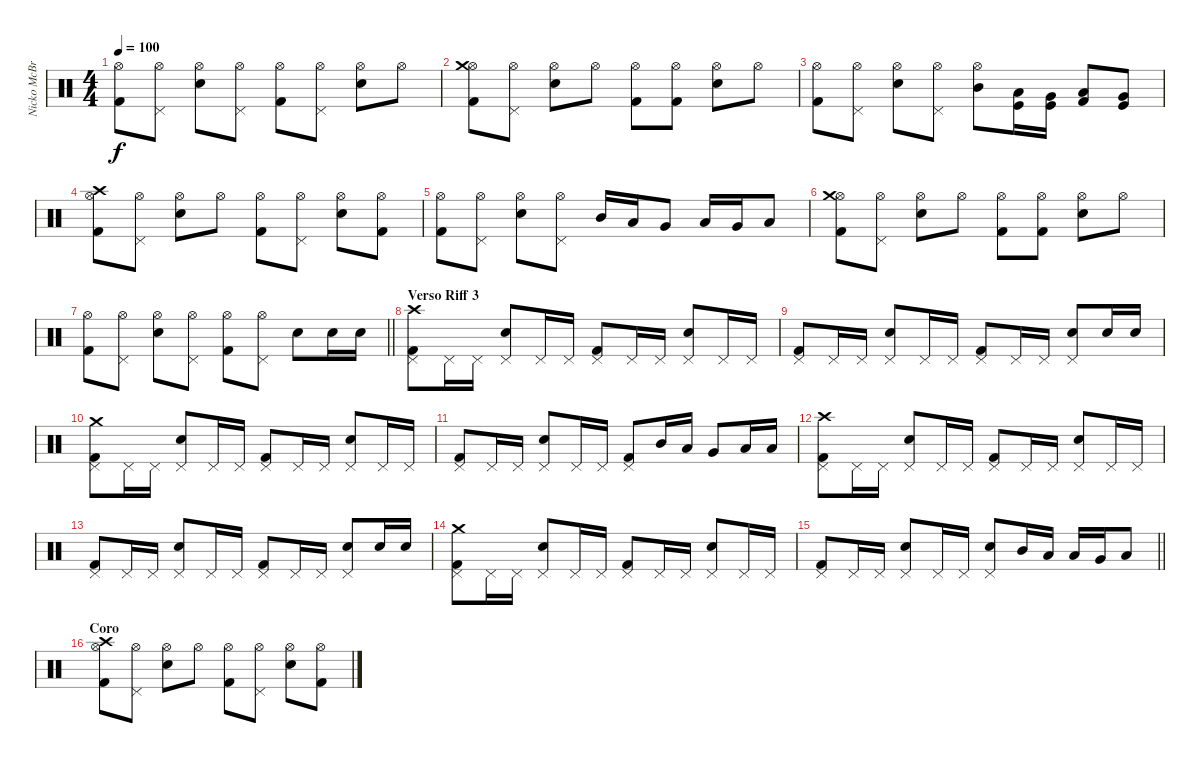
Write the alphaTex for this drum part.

\track ("Nicko McBrain" "Nicko McBr") {instrument percussion}
\staff {score}
\articulation defaults
\ts (4 4)
\tempo 100
\clef neutral
\ks c
("Kick (hit) 2" "Hi-Hat (open)").8{dy f} ("Pedal Hi-Hat (hit)" "Hi-Hat (open)").8 ("Snare (hit) 2" "Hi-Hat (open)").8 ("Pedal Hi-Hat (hit)" "Hi-Hat (open)").8 ("Kick (hit) 2" "Hi-Hat (open)").8 ("Pedal Hi-Hat (hit)" "Hi-Hat (open)").8 ("Snare (hit) 2" "Hi-Hat (open)").8 "Hi-Hat (open)".8 |
("Kick (hit) 2" "Hi-Hat (open)" "Crash medium (hit)").8 ("Pedal Hi-Hat (hit)" "Hi-Hat (open)").8 ("Snare (hit) 2" "Hi-Hat (open)").8 "Hi-Hat (open)".8 ("Kick (hit) 2" "Hi-Hat (open)").8 ("Kick (hit) 2" "Hi-Hat (open)").8 ("Snare (hit) 2" "Hi-Hat (open)").8 "Hi-Hat (open)".8 |
("Kick (hit) 2" "Hi-Hat (open)").8 ("Pedal Hi-Hat (hit)" "Hi-Hat (open)").8 ("Snare (hit) 2" "Hi-Hat (open)").8 ("Pedal Hi-Hat (hit)" "Hi-Hat (open)").8 ("Mid Tom (hit)" "Hi-Hat (open)").8 ("Low Tom (hit)" "Kick (hit)").16 ("Very Low Tom (hit)" "Kick (hit)").16 ("Low Floor Tom (hit)" "Kick (hit) 2").8 ("Very Low Tom (hit)" "Kick (hit)").8 |
("Kick (hit) 2" "Hi-Hat (open)" "Crash high (hit)").8 ("Pedal Hi-Hat (hit)" "Hi-Hat (open)").8 ("Snare (hit) 2" "Hi-Hat (open)").8 "Hi-Hat (open)".8 ("Kick (hit) 2" "Hi-Hat (open)").8 ("Pedal Hi-Hat (hit)" "Hi-Hat (open)").8 ("Snare (hit) 2" "Hi-Hat (open)").8 ("Kick (hit) 2" "Hi-Hat (open)").8 |
("Kick (hit) 2" "Hi-Hat (open)").8 ("Pedal Hi-Hat (hit)" "Hi-Hat (open)").8 ("Snare (hit) 2" "Hi-Hat (open)").8 ("Pedal Hi-Hat (hit)" "Hi-Hat (open)").8 "Mid Tom (hit)".16 "Low Tom (hit)".16 "Very Low Tom (hit)".8 "Low Tom (hit)".16 "Very Low Tom (hit)".16 "Low Floor Tom (hit)".8 |
("Kick (hit) 2" "Hi-Hat (open)" "Crash medium (hit)").8 ("Pedal Hi-Hat (hit)" "Hi-Hat (open)").8 ("Snare (hit) 2" "Hi-Hat (open)").8 "Hi-Hat (open)".8 ("Kick (hit) 2" "Hi-Hat (open)").8 ("Kick (hit) 2" "Hi-Hat (open)").8 ("Snare (hit) 2" "Hi-Hat (open)").8 "Hi-Hat (open)".8 |
\barLineRight lightlight
("Kick (hit) 2" "Hi-Hat (open)").8 ("Pedal Hi-Hat (hit)" "Hi-Hat (open)").8 ("Snare (hit) 2" "Hi-Hat (open)").8 ("Pedal Hi-Hat (hit)" "Hi-Hat (open)").8 ("Kick (hit) 2" "Hi-Hat (open)").8 ("Pedal Hi-Hat (hit)" "Hi-Hat (open)").8 "Snare (hit) 2".8 "Snare (hit) 2".16 "Snare (hit) 2".16 |
\section ("" "Verso Riff 3")
("Kick (hit) 2" "Pedal Hi-Hat (hit)" "Crash high (hit)").8 "Pedal Hi-Hat (hit)".16 "Pedal Hi-Hat (hit)".16 ("Snare (hit) 2" "Pedal Hi-Hat (hit)").8 "Pedal Hi-Hat (hit)".16 "Pedal Hi-Hat (hit)".16 ("Kick (hit) 2" "Pedal Hi-Hat (hit)").8 "Pedal Hi-Hat (hit)".16 "Pedal Hi-Hat (hit)".16 ("Snare (hit) 2" "Pedal Hi-Hat (hit)").8 "Pedal Hi-Hat (hit)".16 "Pedal Hi-Hat (hit)".16 |
("Kick (hit) 2" "Pedal Hi-Hat (hit)").8 "Pedal Hi-Hat (hit)".16 "Pedal Hi-Hat (hit)".16 ("Snare (hit) 2" "Pedal Hi-Hat (hit)").8 "Pedal Hi-Hat (hit)".16 "Pedal Hi-Hat (hit)".16 ("Kick (hit) 2" "Pedal Hi-Hat (hit)").8 "Pedal Hi-Hat (hit)".16 "Pedal Hi-Hat (hit)".16 ("Snare (hit) 2" "Pedal Hi-Hat (hit)").8 "Snare (hit) 2".16 "Snare (hit) 2".16 |
("Kick (hit) 2" "Pedal Hi-Hat (hit)" "Crash medium (hit)").8 "Pedal Hi-Hat (hit)".16 "Pedal Hi-Hat (hit)".16 ("Snare (hit) 2" "Pedal Hi-Hat (hit)").8 "Pedal Hi-Hat (hit)".16 "Pedal Hi-Hat (hit)".16 ("Kick (hit) 2" "Pedal Hi-Hat (hit)").8 "Pedal Hi-Hat (hit)".16 "Pedal Hi-Hat (hit)".16 ("Snare (hit) 2" "Pedal Hi-Hat (hit)").8 "Pedal Hi-Hat (hit)".16 "Pedal Hi-Hat (hit)".16 |
("Kick (hit) 2" "Pedal Hi-Hat (hit)").8 "Pedal Hi-Hat (hit)".16 "Pedal Hi-Hat (hit)".16 ("Snare (hit) 2" "Pedal Hi-Hat (hit)").8 "Pedal Hi-Hat (hit)".16 "Pedal Hi-Hat (hit)".16 ("Kick (hit) 2" "Pedal Hi-Hat (hit)").8 "Mid Tom (hit)".16 "Low Tom (hit)".16 "Very Low Tom (hit)".8 "Low Tom (hit)".16 "Low Floor Tom (hit)".16 |
("Kick (hit) 2" "Pedal Hi-Hat (hit)" "Crash high (hit)").8 "Pedal Hi-Hat (hit)".16 "Pedal Hi-Hat (hit)".16 ("Snare (hit) 2" "Pedal Hi-Hat (hit)").8 "Pedal Hi-Hat (hit)".16 "Pedal Hi-Hat (hit)".16 ("Kick (hit) 2" "Pedal Hi-Hat (hit)").8 "Pedal Hi-Hat (hit)".16 "Pedal Hi-Hat (hit)".16 ("Snare (hit) 2" "Pedal Hi-Hat (hit)").8 "Pedal Hi-Hat (hit)".16 "Pedal Hi-Hat (hit)".16 |
("Kick (hit) 2" "Pedal Hi-Hat (hit)").8 "Pedal Hi-Hat (hit)".16 "Pedal Hi-Hat (hit)".16 ("Snare (hit) 2" "Pedal Hi-Hat (hit)").8 "Pedal Hi-Hat (hit)".16 "Pedal Hi-Hat (hit)".16 ("Kick (hit) 2" "Pedal Hi-Hat (hit)").8 "Pedal Hi-Hat (hit)".16 "Pedal Hi-Hat (hit)".16 ("Snare (hit) 2" "Pedal Hi-Hat (hit)").8 "Snare (hit) 2".16 "Snare (hit) 2".16 |
("Kick (hit) 2" "Pedal Hi-Hat (hit)" "Crash medium (hit)").8 "Pedal Hi-Hat (hit)".16 "Pedal Hi-Hat (hit)".16 ("Snare (hit) 2" "Pedal Hi-Hat (hit)").8 "Pedal Hi-Hat (hit)".16 "Pedal Hi-Hat (hit)".16 ("Kick (hit) 2" "Pedal Hi-Hat (hit)").8 "Pedal Hi-Hat (hit)".16 "Pedal Hi-Hat (hit)".16 ("Snare (hit) 2" "Pedal Hi-Hat (hit)").8 "Pedal Hi-Hat (hit)".16 "Pedal Hi-Hat (hit)".16 |
\barLineRight lightlight
("Kick (hit) 2" "Pedal Hi-Hat (hit)").8 "Pedal Hi-Hat (hit)".16 "Pedal Hi-Hat (hit)".16 ("Snare (hit) 2" "Pedal Hi-Hat (hit)").8 "Pedal Hi-Hat (hit)".16 "Pedal Hi-Hat (hit)".16 ("Snare (hit) 2" "Pedal Hi-Hat (hit)").8 "Mid Tom (hit)".16 "Low Tom (hit)".16 "Low Floor Tom (hit)".16 "Very Low Tom (hit)".16 "Low Floor Tom (hit)".8 |
\section ("" "Coro")
("Kick (hit) 2" "Hi-Hat (open)" "Crash high (hit)").8 ("Pedal Hi-Hat (hit)" "Hi-Hat (open)").8 ("Snare (hit) 2" "Hi-Hat (open)").8 "Hi-Hat (open)".8 ("Kick (hit) 2" "Hi-Hat (open)").8 ("Pedal Hi-Hat (hit)" "Hi-Hat (open)").8 ("Snare (hit) 2" "Hi-Hat (open)").8 ("Kick (hit) 2" "Hi-Hat (open)").8
